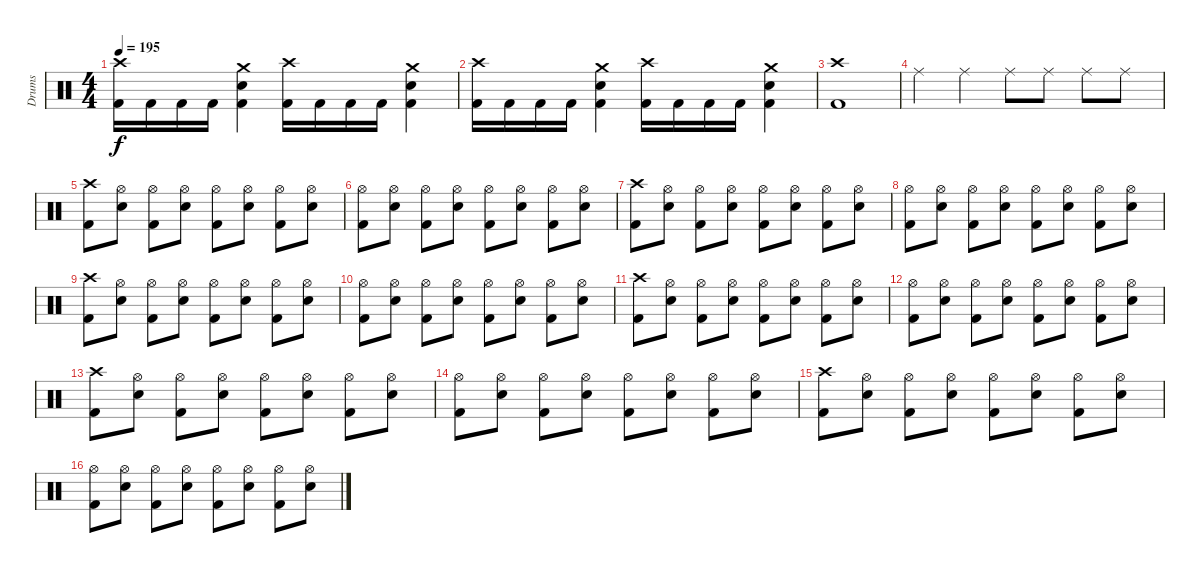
\track ("Drums" "Drums") {instrument percussion}
\staff {score}
\articulation defaults
\ts (4 4)
\tempo 195
\clef neutral
\ks c
("Kick (hit) 2" "Crash high (hit)").16{dy f} "Kick (hit) 2".16 "Kick (hit) 2".16 "Kick (hit) 2".16 ("Kick (hit) 2" "Snare (hit) 2" "Crash medium (hit)").4 ("Kick (hit) 2" "Crash high (hit)").16 "Kick (hit) 2".16 "Kick (hit) 2".16 "Kick (hit) 2".16 ("Kick (hit) 2" "Snare (hit) 2" "Crash medium (hit)").4 |
("Kick (hit) 2" "Crash high (hit)").16 "Kick (hit) 2".16 "Kick (hit) 2".16 "Kick (hit) 2".16 ("Kick (hit) 2" "Snare (hit) 2" "Crash medium (hit)").4 ("Kick (hit) 2" "Crash high (hit)").16 "Kick (hit) 2".16 "Kick (hit) 2".16 "Kick (hit) 2".16 ("Kick (hit) 2" "Snare (hit) 2" "Crash medium (hit)").4 |
("Crash high (hit)" "Kick (hit) 2").1 |
"Ride (middle)".4 "Ride (middle)".4 "Ride (middle)".8 "Ride (middle)".8 "Ride (middle)".8 "Ride (middle)".8 |
("Crash high (hit)" "Kick (hit) 2").8 ("Hi-Hat (open)" "Snare (hit) 2").8 ("Hi-Hat (open)" "Kick (hit) 2").8 ("Hi-Hat (open)" "Snare (hit) 2").8 ("Hi-Hat (open)" "Kick (hit) 2").8 ("Hi-Hat (open)" "Snare (hit) 2").8 ("Hi-Hat (open)" "Kick (hit) 2").8 ("Hi-Hat (open)" "Snare (hit) 2").8 |
("Hi-Hat (open)" "Kick (hit) 2").8 ("Hi-Hat (open)" "Snare (hit) 2").8 ("Hi-Hat (open)" "Kick (hit) 2").8 ("Hi-Hat (open)" "Snare (hit) 2").8 ("Hi-Hat (open)" "Kick (hit) 2").8 ("Hi-Hat (open)" "Snare (hit) 2").8 ("Hi-Hat (open)" "Kick (hit) 2").8 ("Hi-Hat (open)" "Snare (hit) 2").8 |
("Crash high (hit)" "Kick (hit) 2").8 ("Hi-Hat (open)" "Snare (hit) 2").8 ("Hi-Hat (open)" "Kick (hit) 2").8 ("Hi-Hat (open)" "Snare (hit) 2").8 ("Hi-Hat (open)" "Kick (hit) 2").8 ("Hi-Hat (open)" "Snare (hit) 2").8 ("Hi-Hat (open)" "Kick (hit) 2").8 ("Hi-Hat (open)" "Snare (hit) 2").8 |
("Hi-Hat (open)" "Kick (hit) 2").8 ("Hi-Hat (open)" "Snare (hit) 2").8 ("Hi-Hat (open)" "Kick (hit) 2").8 ("Hi-Hat (open)" "Snare (hit) 2").8 ("Hi-Hat (open)" "Kick (hit) 2").8 ("Hi-Hat (open)" "Snare (hit) 2").8 ("Hi-Hat (open)" "Kick (hit) 2").8 ("Hi-Hat (open)" "Snare (hit) 2").8 |
("Crash high (hit)" "Kick (hit) 2").8 ("Hi-Hat (open)" "Snare (hit) 2").8 ("Hi-Hat (open)" "Kick (hit) 2").8 ("Hi-Hat (open)" "Snare (hit) 2").8 ("Hi-Hat (open)" "Kick (hit) 2").8 ("Hi-Hat (open)" "Snare (hit) 2").8 ("Hi-Hat (open)" "Kick (hit) 2").8 ("Hi-Hat (open)" "Snare (hit) 2").8 |
("Hi-Hat (open)" "Kick (hit) 2").8 ("Hi-Hat (open)" "Snare (hit) 2").8 ("Hi-Hat (open)" "Kick (hit) 2").8 ("Hi-Hat (open)" "Snare (hit) 2").8 ("Hi-Hat (open)" "Kick (hit) 2").8 ("Hi-Hat (open)" "Snare (hit) 2").8 ("Hi-Hat (open)" "Kick (hit) 2").8 ("Hi-Hat (open)" "Snare (hit) 2").8 |
("Crash high (hit)" "Kick (hit) 2").8 ("Hi-Hat (open)" "Snare (hit) 2").8 ("Hi-Hat (open)" "Kick (hit) 2").8 ("Hi-Hat (open)" "Snare (hit) 2").8 ("Hi-Hat (open)" "Kick (hit) 2").8 ("Hi-Hat (open)" "Snare (hit) 2").8 ("Hi-Hat (open)" "Kick (hit) 2").8 ("Hi-Hat (open)" "Snare (hit) 2").8 |
("Hi-Hat (open)" "Kick (hit) 2").8 ("Hi-Hat (open)" "Snare (hit) 2").8 ("Hi-Hat (open)" "Kick (hit) 2").8 ("Hi-Hat (open)" "Snare (hit) 2").8 ("Hi-Hat (open)" "Kick (hit) 2").8 ("Hi-Hat (open)" "Snare (hit) 2").8 ("Hi-Hat (open)" "Kick (hit) 2").8 ("Hi-Hat (open)" "Snare (hit) 2").8 |
("Crash high (hit)" "Kick (hit) 2").8 ("Hi-Hat (open)" "Snare (hit) 2").8 ("Hi-Hat (open)" "Kick (hit) 2").8 ("Hi-Hat (open)" "Snare (hit) 2").8 ("Hi-Hat (open)" "Kick (hit) 2").8 ("Hi-Hat (open)" "Snare (hit) 2").8 ("Hi-Hat (open)" "Kick (hit) 2").8 ("Hi-Hat (open)" "Snare (hit) 2").8 |
("Hi-Hat (open)" "Kick (hit) 2").8 ("Hi-Hat (open)" "Snare (hit) 2").8 ("Hi-Hat (open)" "Kick (hit) 2").8 ("Hi-Hat (open)" "Snare (hit) 2").8 ("Hi-Hat (open)" "Kick (hit) 2").8 ("Hi-Hat (open)" "Snare (hit) 2").8 ("Hi-Hat (open)" "Kick (hit) 2").8 ("Hi-Hat (open)" "Snare (hit) 2").8 |
("Crash high (hit)" "Kick (hit) 2").8 ("Hi-Hat (open)" "Snare (hit) 2").8 ("Hi-Hat (open)" "Kick (hit) 2").8 ("Hi-Hat (open)" "Snare (hit) 2").8 ("Hi-Hat (open)" "Kick (hit) 2").8 ("Hi-Hat (open)" "Snare (hit) 2").8 ("Hi-Hat (open)" "Kick (hit) 2").8 ("Hi-Hat (open)" "Snare (hit) 2").8 |
("Hi-Hat (open)" "Kick (hit) 2").8 ("Hi-Hat (open)" "Snare (hit) 2").8 ("Hi-Hat (open)" "Kick (hit) 2").8 ("Hi-Hat (open)" "Snare (hit) 2").8 ("Hi-Hat (open)" "Kick (hit) 2").8 ("Hi-Hat (open)" "Snare (hit) 2").8 ("Hi-Hat (open)" "Kick (hit) 2").8 ("Hi-Hat (open)" "Snare (hit) 2").8
